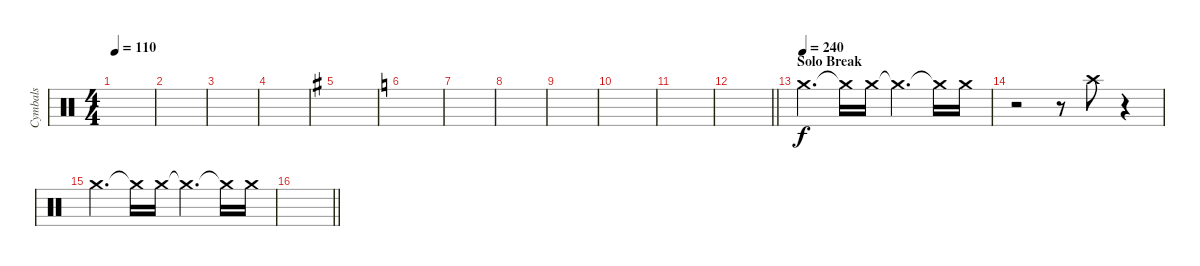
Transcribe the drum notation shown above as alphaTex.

\track ("Cymbals" "Cymbals") {instrument percussion}
\staff {score}
\articulation defaults
\ts (4 4)
\tempo 110
\clef neutral
\ks c
|
|
|
|
\ks g
|
\ks c
|
|
|
|
|
|
\barLineRight lightlight
|
\section ("" "Solo Break")
\tempo (240)
"Crash medium (hit)".4{d} "Crash medium (hit)"{t}.16 "Crash medium (hit)".16 "Crash medium (hit)"{t}.4{d} "Crash medium (hit)"{t}.16 "Crash medium (hit)".16 |
r.2 r.8 "Crash high (hit)".8 r.4 |
"Crash medium (hit)".4{d} "Crash medium (hit)"{t}.16 "Crash medium (hit)".16 "Crash medium (hit)"{t}.4{d} "Crash medium (hit)"{t}.16 "Crash medium (hit)".16 |
\barLineRight lightlight
